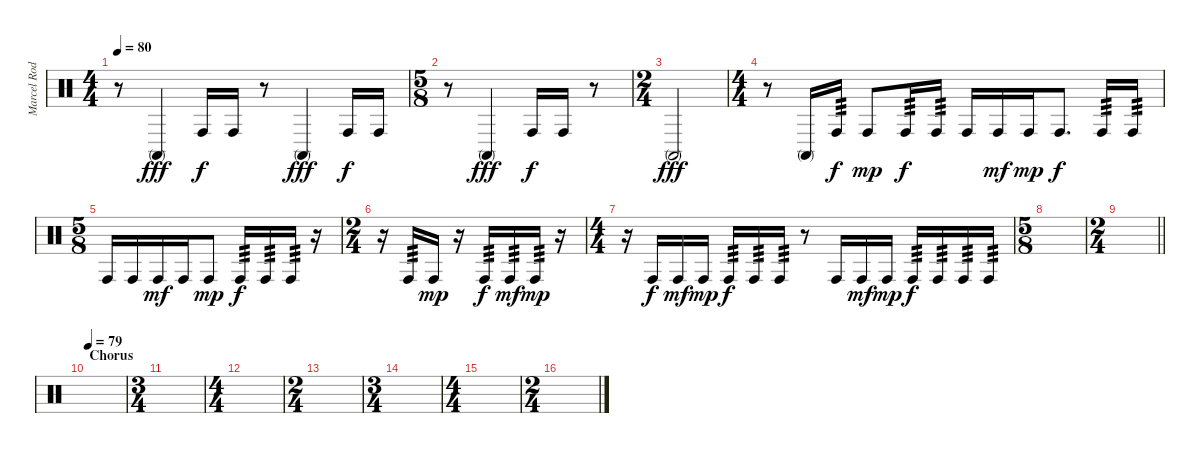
\track ("Marcel Rodriguez-Lopez" "Marcel Rod") {instrument percussion}
\staff {score}
\articulation defaults
\ts (4 4)
\tempo 80
\clef neutral
\ks c
r.8{dy fff} "Conga high (mute)".4 "Conga high (hit)".16{dy f} "Conga high (hit)".16 r.8 "Conga high (mute)".4{dy fff} "Conga high (hit)".16{dy f} "Conga high (hit)".16 |
\ts (5 8)
r.8 "Conga high (mute)".4{dy fff} "Conga high (hit)".16{dy f} "Conga high (hit)".16 r.8 |
\ts (2 4)
"Conga high (mute)".2{dy fff} |
\ts (4 4)
r.8 "Conga high (mute)".16 "Conga high (hit)".16{tp 3 dy f} "Conga high (hit)".8{dy mp} "Conga high (hit)".16{tp 3 dy f} "Conga high (hit)".16{tp 3} "Conga high (hit)".16 "Conga high (hit)".16{dy mf} "Conga high (hit)".16{dy mp} "Conga high (hit)".8{d dy f} "Conga high (hit)".16{tp 3} "Conga high (hit)".16{tp 3} |
\ts (5 8)
"Conga high (hit)".16 "Conga high (hit)".16 "Conga high (hit)".16{dy mf} "Conga high (hit)".16 "Conga high (hit)".8{dy mp} "Conga high (hit)".16{tp 3 dy f} "Conga high (hit)".16{tp 3} "Conga high (hit)".16{tp 3} r.16 |
\ts (2 4)
r.16 "Conga high (hit)".16{tp 3} "Conga high (hit)".16{dy mp} r.16 "Conga high (hit)".16{tp 3 dy f} "Conga high (hit)".16{tp 3 dy mf} "Conga high (hit)".16{tp 3 dy mp} r.16 |
\ts (4 4)
r.16 "Conga high (hit)".16{dy f} "Conga high (hit)".16{dy mf} "Conga high (hit)".16{dy mp} "Conga high (hit)".16{tp 3 dy f} "Conga high (hit)".16{tp 3} "Conga high (hit)".16{tp 3} r.8 "Conga high (hit)".16 "Conga high (hit)".16{dy mf} "Conga high (hit)".16{dy mp} "Conga high (hit)".16{tp 3 dy f} "Conga high (hit)".16{tp 3} "Conga high (hit)".16{tp 3} "Conga high (hit)".16{tp 3} |
\ts (5 8)
|
\ts (2 4)
\barLineRight lightlight
|
\section ("" "Chorus")
\tempo 79
|
\ts (3 4)
|
\ts (4 4)
|
\ts (2 4)
|
\ts (3 4)
|
\ts (4 4)
|
\ts (2 4)
